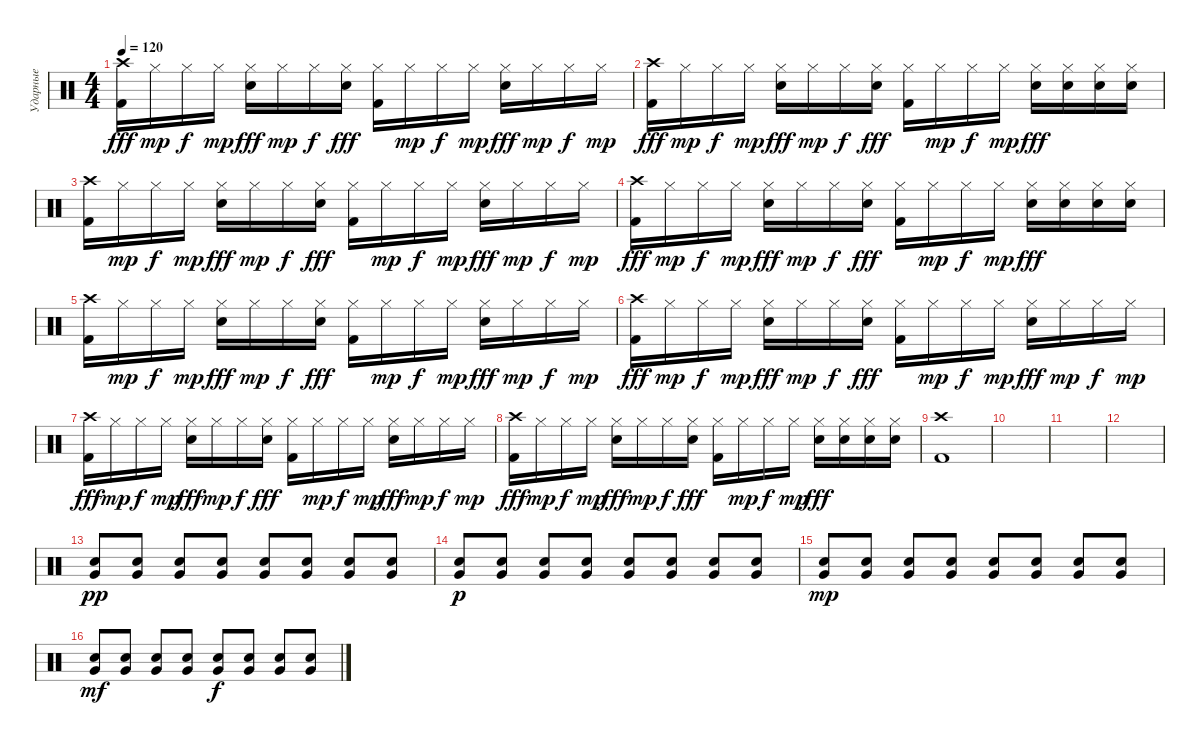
\track ("Ударные" "Ударные") {instrument percussion}
\staff {score}
\articulation defaults
\ts (4 4)
\tempo 120
\clef neutral
\ks c
("Crash high (hit)" "Kick (hit) 2").16{dy fff} "Hi-Hat (closed)".16{dy mp} "Hi-Hat (closed)".16{dy f} "Hi-Hat (closed)".16{dy mp} ("Hi-Hat (closed)" "Electric Snare (hit)").16{dy fff} "Hi-Hat (closed)".16{dy mp} "Hi-Hat (closed)".16{dy f} ("Hi-Hat (closed)" "Electric Snare (hit)").16{dy fff} ("Hi-Hat (closed)" "Kick (hit) 2").16 "Hi-Hat (closed)".16{dy mp} "Hi-Hat (closed)".16{dy f} "Hi-Hat (closed)".16{dy mp} ("Hi-Hat (closed)" "Electric Snare (hit)").16{dy fff} "Hi-Hat (closed)".16{dy mp} "Hi-Hat (closed)".16{dy f} "Hi-Hat (closed)".16{dy mp} |
("Crash high (hit)" "Kick (hit) 2").16{dy fff} "Hi-Hat (closed)".16{dy mp} "Hi-Hat (closed)".16{dy f} "Hi-Hat (closed)".16{dy mp} ("Hi-Hat (closed)" "Electric Snare (hit)").16{dy fff} "Hi-Hat (closed)".16{dy mp} "Hi-Hat (closed)".16{dy f} ("Hi-Hat (closed)" "Electric Snare (hit)").16{dy fff} ("Hi-Hat (closed)" "Kick (hit) 2").16 "Hi-Hat (closed)".16{dy mp} "Hi-Hat (closed)".16{dy f} "Hi-Hat (closed)".16{dy mp} ("Hi-Hat (closed)" "Electric Snare (hit)").16{dy fff} ("Hi-Hat (closed)" "Electric Snare (hit)").16 ("Hi-Hat (closed)" "Electric Snare (hit)").16 ("Hi-Hat (closed)" "Electric Snare (hit)").16 |
("Crash high (hit)" "Kick (hit) 2").16 "Hi-Hat (closed)".16{dy mp} "Hi-Hat (closed)".16{dy f} "Hi-Hat (closed)".16{dy mp} ("Hi-Hat (closed)" "Electric Snare (hit)").16{dy fff} "Hi-Hat (closed)".16{dy mp} "Hi-Hat (closed)".16{dy f} ("Hi-Hat (closed)" "Electric Snare (hit)").16{dy fff} ("Hi-Hat (closed)" "Kick (hit) 2").16 "Hi-Hat (closed)".16{dy mp} "Hi-Hat (closed)".16{dy f} "Hi-Hat (closed)".16{dy mp} ("Hi-Hat (closed)" "Electric Snare (hit)").16{dy fff} "Hi-Hat (closed)".16{dy mp} "Hi-Hat (closed)".16{dy f} "Hi-Hat (closed)".16{dy mp} |
("Crash high (hit)" "Kick (hit) 2").16{dy fff} "Hi-Hat (closed)".16{dy mp} "Hi-Hat (closed)".16{dy f} "Hi-Hat (closed)".16{dy mp} ("Hi-Hat (closed)" "Electric Snare (hit)").16{dy fff} "Hi-Hat (closed)".16{dy mp} "Hi-Hat (closed)".16{dy f} ("Hi-Hat (closed)" "Electric Snare (hit)").16{dy fff} ("Hi-Hat (closed)" "Kick (hit) 2").16 "Hi-Hat (closed)".16{dy mp} "Hi-Hat (closed)".16{dy f} "Hi-Hat (closed)".16{dy mp} ("Hi-Hat (closed)" "Electric Snare (hit)").16{dy fff} ("Hi-Hat (closed)" "Electric Snare (hit)").16 ("Hi-Hat (closed)" "Electric Snare (hit)").16 ("Hi-Hat (closed)" "Electric Snare (hit)").16 |
("Crash high (hit)" "Kick (hit) 2").16 "Hi-Hat (closed)".16{dy mp} "Hi-Hat (closed)".16{dy f} "Hi-Hat (closed)".16{dy mp} ("Hi-Hat (closed)" "Electric Snare (hit)").16{dy fff} "Hi-Hat (closed)".16{dy mp} "Hi-Hat (closed)".16{dy f} ("Hi-Hat (closed)" "Electric Snare (hit)").16{dy fff} ("Hi-Hat (closed)" "Kick (hit) 2").16 "Hi-Hat (closed)".16{dy mp} "Hi-Hat (closed)".16{dy f} "Hi-Hat (closed)".16{dy mp} ("Hi-Hat (closed)" "Electric Snare (hit)").16{dy fff} "Hi-Hat (closed)".16{dy mp} "Hi-Hat (closed)".16{dy f} "Hi-Hat (closed)".16{dy mp} |
("Crash high (hit)" "Kick (hit) 2").16{dy fff} "Hi-Hat (closed)".16{dy mp} "Hi-Hat (closed)".16{dy f} "Hi-Hat (closed)".16{dy mp} ("Hi-Hat (closed)" "Electric Snare (hit)").16{dy fff} "Hi-Hat (closed)".16{dy mp} "Hi-Hat (closed)".16{dy f} ("Hi-Hat (closed)" "Electric Snare (hit)").16{dy fff} ("Hi-Hat (closed)" "Kick (hit) 2").16 "Hi-Hat (closed)".16{dy mp} "Hi-Hat (closed)".16{dy f} "Hi-Hat (closed)".16{dy mp} ("Hi-Hat (closed)" "Electric Snare (hit)").16{dy fff} "Hi-Hat (closed)".16{dy mp} "Hi-Hat (closed)".16{dy f} "Hi-Hat (closed)".16{dy mp} |
("Crash high (hit)" "Kick (hit) 2").16{dy fff} "Hi-Hat (closed)".16{dy mp} "Hi-Hat (closed)".16{dy f} "Hi-Hat (closed)".16{dy mp} ("Hi-Hat (closed)" "Electric Snare (hit)").16{dy fff} "Hi-Hat (closed)".16{dy mp} "Hi-Hat (closed)".16{dy f} ("Hi-Hat (closed)" "Electric Snare (hit)").16{dy fff} ("Hi-Hat (closed)" "Kick (hit) 2").16 "Hi-Hat (closed)".16{dy mp} "Hi-Hat (closed)".16{dy f} "Hi-Hat (closed)".16{dy mp} ("Hi-Hat (closed)" "Electric Snare (hit)").16{dy fff} "Hi-Hat (closed)".16{dy mp} "Hi-Hat (closed)".16{dy f} "Hi-Hat (closed)".16{dy mp} |
("Crash high (hit)" "Kick (hit) 2").16{dy fff} "Hi-Hat (closed)".16{dy mp} "Hi-Hat (closed)".16{dy f} "Hi-Hat (closed)".16{dy mp} ("Hi-Hat (closed)" "Electric Snare (hit)").16{dy fff} "Hi-Hat (closed)".16{dy mp} "Hi-Hat (closed)".16{dy f} ("Hi-Hat (closed)" "Electric Snare (hit)").16{dy fff} ("Hi-Hat (closed)" "Kick (hit) 2").16 "Hi-Hat (closed)".16{dy mp} "Hi-Hat (closed)".16{dy f} "Hi-Hat (closed)".16{dy mp} ("Hi-Hat (closed)" "Electric Snare (hit)").16{dy fff} ("Hi-Hat (closed)" "Electric Snare (hit)").16 ("Hi-Hat (closed)" "Electric Snare (hit)").16 ("Hi-Hat (closed)" "Electric Snare (hit)").16 |
("Crash high (hit)" "Kick (hit) 2").1 |
|
|
|
("Very Low Tom (hit)" "Electric Snare (hit)").8{dy pp} ("Very Low Tom (hit)" "Electric Snare (hit)").8 ("Very Low Tom (hit)" "Electric Snare (hit)").8 ("Very Low Tom (hit)" "Electric Snare (hit)").8 ("Very Low Tom (hit)" "Electric Snare (hit)").8 ("Very Low Tom (hit)" "Electric Snare (hit)").8 ("Very Low Tom (hit)" "Electric Snare (hit)").8 ("Very Low Tom (hit)" "Electric Snare (hit)").8 |
("Very Low Tom (hit)" "Electric Snare (hit)").8{dy p} ("Very Low Tom (hit)" "Electric Snare (hit)").8 ("Very Low Tom (hit)" "Electric Snare (hit)").8 ("Very Low Tom (hit)" "Electric Snare (hit)").8 ("Very Low Tom (hit)" "Electric Snare (hit)").8 ("Very Low Tom (hit)" "Electric Snare (hit)").8 ("Very Low Tom (hit)" "Electric Snare (hit)").8 ("Very Low Tom (hit)" "Electric Snare (hit)").8 |
("Very Low Tom (hit)" "Electric Snare (hit)").8{dy mp} ("Very Low Tom (hit)" "Electric Snare (hit)").8 ("Very Low Tom (hit)" "Electric Snare (hit)").8 ("Very Low Tom (hit)" "Electric Snare (hit)").8 ("Very Low Tom (hit)" "Electric Snare (hit)").8 ("Very Low Tom (hit)" "Electric Snare (hit)").8 ("Very Low Tom (hit)" "Electric Snare (hit)").8 ("Very Low Tom (hit)" "Electric Snare (hit)").8 |
("Very Low Tom (hit)" "Electric Snare (hit)").8{dy mf} ("Very Low Tom (hit)" "Electric Snare (hit)").8 ("Very Low Tom (hit)" "Electric Snare (hit)").8 ("Very Low Tom (hit)" "Electric Snare (hit)").8 ("Very Low Tom (hit)" "Electric Snare (hit)").8{dy f} ("Very Low Tom (hit)" "Electric Snare (hit)").8 ("Very Low Tom (hit)" "Electric Snare (hit)").8 ("Very Low Tom (hit)" "Electric Snare (hit)").8
